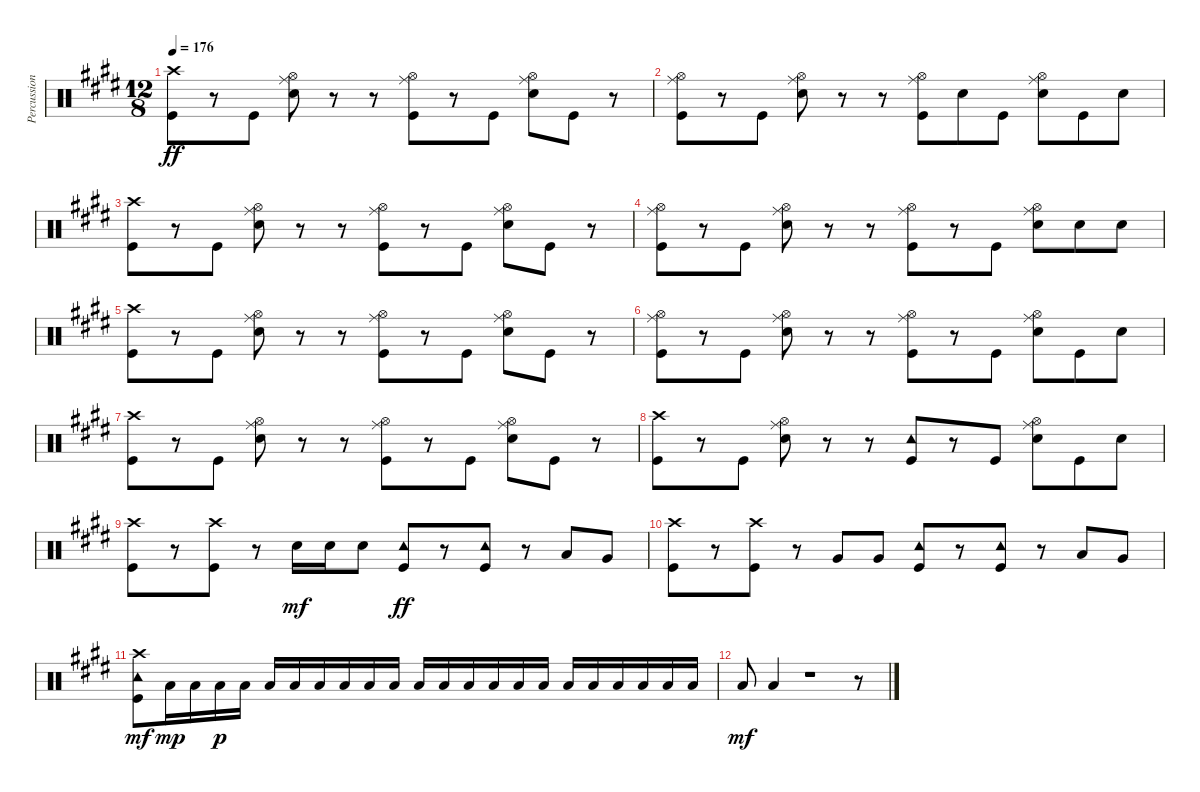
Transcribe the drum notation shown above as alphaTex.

\track ("Percussion" "Percussion") {instrument percussion}
\staff {score}
\articulation defaults
\ts (12 8)
\tempo 176
\clef neutral
\ks e
("Crash high (hit)" "Kick (hit)").8{dy ff} r.8 "Kick (hit)".8 ("Ride (middle)" "Hi-Hat (open)" "Electric Snare (hit)").8 r.8 r.8 ("Ride (middle)" "Hi-Hat (open)" "Kick (hit)").8 r.8 "Kick (hit)".8 ("Ride (middle)" "Hi-Hat (open)" "Electric Snare (hit)").8 "Kick (hit)".8 r.8 |
("Ride (middle)" "Hi-Hat (open)" "Kick (hit)").8 r.8 "Kick (hit)".8 ("Ride (middle)" "Hi-Hat (open)" "Electric Snare (hit)").8 r.8 r.8 ("Ride (middle)" "Hi-Hat (open)" "Kick (hit)").8 "Electric Snare (hit)".8 "Kick (hit)".8 ("Ride (middle)" "Hi-Hat (open)" "Electric Snare (hit)").8 "Kick (hit)".8 "Electric Snare (hit)".8 |
("Crash high (hit)" "Kick (hit)").8 r.8 "Kick (hit)".8 ("Ride (middle)" "Hi-Hat (open)" "Electric Snare (hit)").8 r.8 r.8 ("Ride (middle)" "Hi-Hat (open)" "Kick (hit)").8 r.8 "Kick (hit)".8 ("Ride (middle)" "Hi-Hat (open)" "Electric Snare (hit)").8 "Kick (hit)".8 r.8 |
("Ride (middle)" "Hi-Hat (open)" "Kick (hit)").8 r.8 "Kick (hit)".8 ("Ride (middle)" "Hi-Hat (open)" "Electric Snare (hit)").8 r.8 r.8 ("Ride (middle)" "Hi-Hat (open)" "Kick (hit)").8 r.8 "Kick (hit)".8 ("Ride (middle)" "Hi-Hat (open)" "Electric Snare (hit)").8 "Electric Snare (hit)".8 "Electric Snare (hit)".8 |
("Crash high (hit)" "Kick (hit)").8 r.8 "Kick (hit)".8 ("Ride (middle)" "Hi-Hat (open)" "Electric Snare (hit)").8 r.8 r.8 ("Ride (middle)" "Hi-Hat (open)" "Kick (hit)").8 r.8 "Kick (hit)".8 ("Ride (middle)" "Hi-Hat (open)" "Electric Snare (hit)").8 "Kick (hit)".8 r.8 |
("Ride (middle)" "Hi-Hat (open)" "Kick (hit)").8 r.8 "Kick (hit)".8 ("Ride (middle)" "Hi-Hat (open)" "Electric Snare (hit)").8 r.8 r.8 ("Ride (middle)" "Hi-Hat (open)" "Kick (hit)").8 r.8 "Kick (hit)".8 ("Ride (middle)" "Hi-Hat (open)" "Electric Snare (hit)").8 "Kick (hit)".8 "Electric Snare (hit)".8 |
("Crash high (hit)" "Kick (hit)").8 r.8 "Kick (hit)".8 ("Ride (middle)" "Hi-Hat (open)" "Electric Snare (hit)").8 r.8 r.8 ("Ride (middle)" "Hi-Hat (open)" "Kick (hit)").8 r.8 "Kick (hit)".8 ("Ride (middle)" "Hi-Hat (open)" "Electric Snare (hit)").8 "Kick (hit)".8 r.8 |
("Crash high (hit)" "Kick (hit)").8 r.8 "Kick (hit)".8 ("Ride (middle)" "Hi-Hat (open)" "Electric Snare (hit)").8 r.8 r.8 ("Tambourine (hit)" "Kick (hit)").8 r.8 "Kick (hit)".8 ("Ride (middle)" "Hi-Hat (open)" "Electric Snare (hit)").8 "Kick (hit)".8 "Electric Snare (hit)".8 |
("Crash high (hit)" "Kick (hit)").8 r.8 ("Crash high (hit)" "Kick (hit)").8 r.8 "Electric Snare (hit)".16{dy mf} "Electric Snare (hit)".16 "Electric Snare (hit)".8 ("Tambourine (hit)" "Kick (hit)").8{dy ff} r.8 ("Tambourine (hit)" "Kick (hit)").8 r.8 "Low Tom (hit)".8 "Very Low Tom (hit)".8 |
("Crash high (hit)" "Kick (hit)").8 r.8 ("Crash high (hit)" "Kick (hit)").8 r.8 "Very Low Tom (hit)".8 "Very Low Tom (hit)".8 ("Tambourine (hit)" "Kick (hit)").8 r.8 ("Tambourine (hit)" "Kick (hit)").8 r.8 "Low Tom (hit)".8 "Very Low Tom (hit)".8 |
("Tambourine (hit)" "Crash high (hit)" "Kick (hit)").8{dy mf} "Low Floor Tom (hit)".16{dy mp} "Low Floor Tom (hit)".16 "Low Floor Tom (hit)".16{dy p} "Low Floor Tom (hit)".16 "Low Floor Tom (hit)".16 "Low Floor Tom (hit)".16 "Low Floor Tom (hit)".16 "Low Floor Tom (hit)".16 "Low Floor Tom (hit)".16 "Low Floor Tom (hit)".16 "Low Floor Tom (hit)".16 "Low Floor Tom (hit)".16 "Low Floor Tom (hit)".16 "Low Floor Tom (hit)".16 "Low Floor Tom (hit)".16 "Low Floor Tom (hit)".16 "Low Floor Tom (hit)".16 "Low Floor Tom (hit)".16 "Low Floor Tom (hit)".16 "Low Floor Tom (hit)".16 "Low Floor Tom (hit)".16 "Low Floor Tom (hit)".16 |
"Low Floor Tom (hit)".8{dy mf} "Low Floor Tom (hit)".4 r.1 r.8
